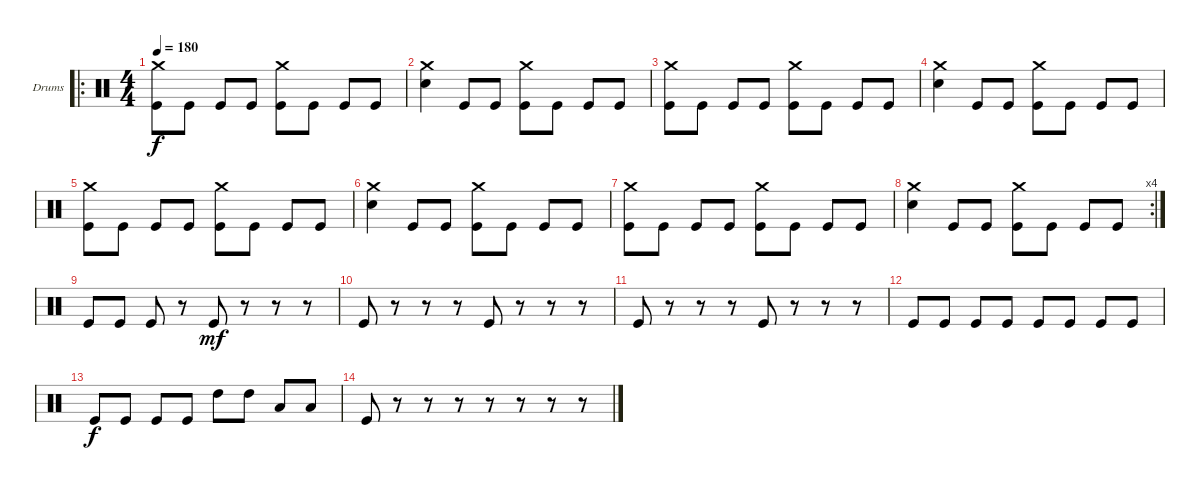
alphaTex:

\bracketExtendMode groupsimilarinstruments
\firstSystemTrackNameOrientation horizontal
\otherSystemsTrackNameOrientation horizontal
\track ("Drumkit" "Drums") {instrument percussion}
\staff {score}
\articulation defaults
\ro
\ts (4 4)
\tempo 180
\clef neutral
\ks c
("Crash medium (hit)" "Kick (hit)").8{dy f} "Kick (hit)".8 "Kick (hit)".8 "Kick (hit)".8 ("Crash medium (hit)" "Kick (hit)").8 "Kick (hit)".8 "Kick (hit)".8 "Kick (hit)".8 |
("Crash medium (hit)" "Snare (hit) 2").4 "Kick (hit)".8 "Kick (hit)".8 ("Crash medium (hit)" "Kick (hit)").8 "Kick (hit)".8 "Kick (hit)".8 "Kick (hit)".8 |
("Crash medium (hit)" "Kick (hit)").8 "Kick (hit)".8 "Kick (hit)".8 "Kick (hit)".8 ("Crash medium (hit)" "Kick (hit)").8 "Kick (hit)".8 "Kick (hit)".8 "Kick (hit)".8 |
("Crash medium (hit)" "Snare (hit) 2").4 "Kick (hit)".8 "Kick (hit)".8 ("Crash medium (hit)" "Kick (hit)").8 "Kick (hit)".8 "Kick (hit)".8 "Kick (hit)".8 |
("Crash medium (hit)" "Kick (hit)").8 "Kick (hit)".8 "Kick (hit)".8 "Kick (hit)".8 ("Crash medium (hit)" "Kick (hit)").8 "Kick (hit)".8 "Kick (hit)".8 "Kick (hit)".8 |
("Crash medium (hit)" "Snare (hit) 2").4 "Kick (hit)".8 "Kick (hit)".8 ("Crash medium (hit)" "Kick (hit)").8 "Kick (hit)".8 "Kick (hit)".8 "Kick (hit)".8 |
("Crash medium (hit)" "Kick (hit)").8 "Kick (hit)".8 "Kick (hit)".8 "Kick (hit)".8 ("Crash medium (hit)" "Kick (hit)").8 "Kick (hit)".8 "Kick (hit)".8 "Kick (hit)".8 |
\rc 4
("Crash medium (hit)" "Snare (hit) 2").4 "Kick (hit)".8 "Kick (hit)".8 ("Crash medium (hit)" "Kick (hit)").8 "Kick (hit)".8 "Kick (hit)".8 "Kick (hit)".8 |
"Kick (hit)".8 "Kick (hit)".8 "Kick (hit)".8 r.8 "Kick (hit)".8{dy mf} r.8 r.8 r.8 |
"Kick (hit)".8 r.8 r.8 r.8 "Kick (hit)".8 r.8 r.8 r.8 |
"Kick (hit)".8 r.8 r.8 r.8 "Kick (hit)".8 r.8 r.8 r.8 |
"Kick (hit)".8 "Kick (hit)".8 "Kick (hit)".8 "Kick (hit)".8 "Kick (hit)".8 "Kick (hit)".8 "Kick (hit)".8 "Kick (hit)".8 |
"Kick (hit)".8{dy f} "Kick (hit)".8 "Kick (hit)".8 "Kick (hit)".8 "High Tom (hit)".8 "High Tom (hit)".8 "Low Tom (hit)".8 "Low Tom (hit)".8 |
"Kick (hit)".8 r.8 r.8 r.8 r.8 r.8 r.8 r.8
